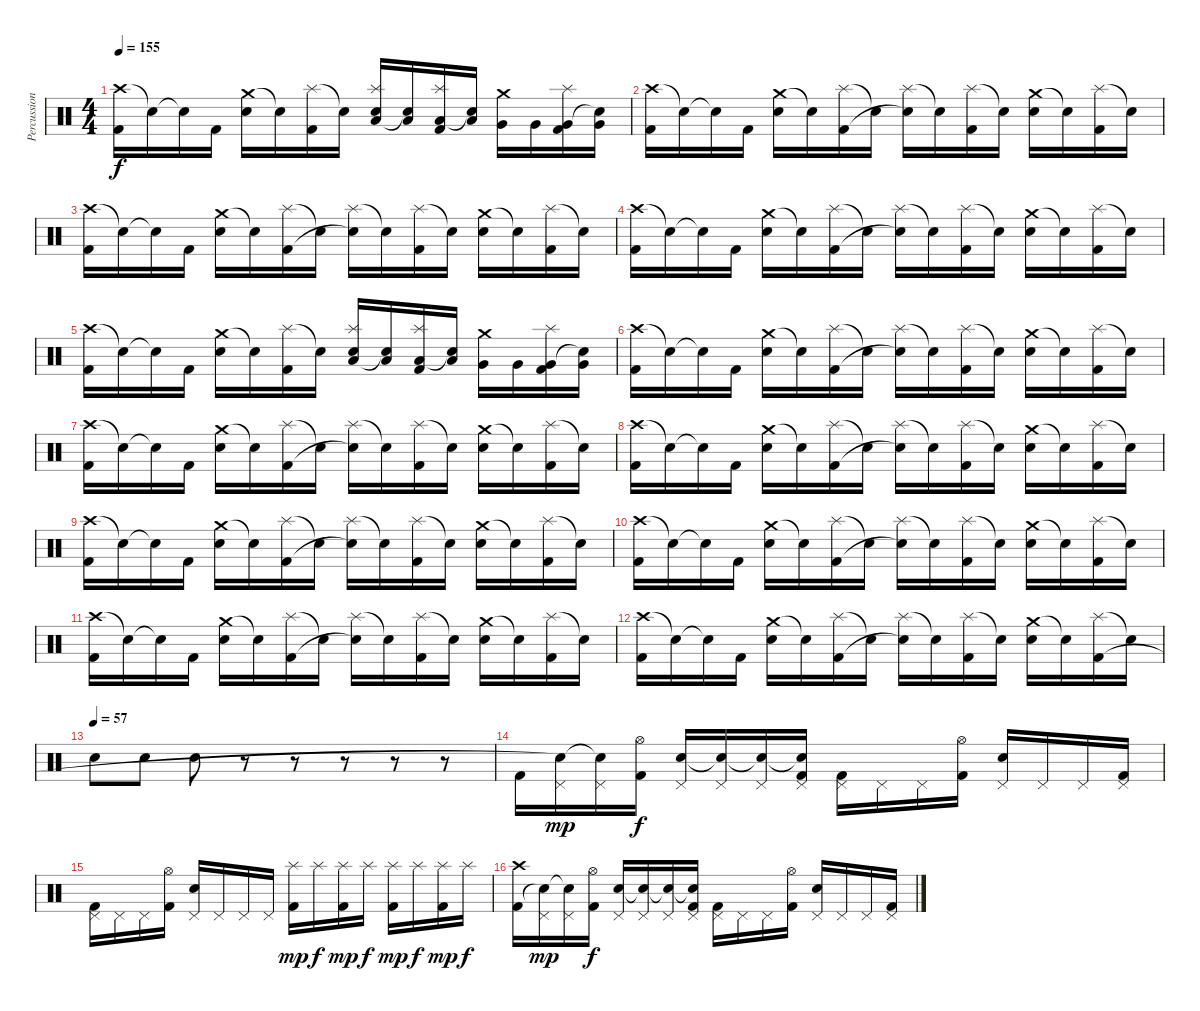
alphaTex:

\track ("Percussion" "Percussion") {instrument percussion}
\staff {score}
\articulation defaults
\ts (4 4)
\tempo 155
\clef neutral
\ks c
("Crash high (hit)" "Kick (hit) 2").16{dy f} "Snare (hit)"{t}.16 "Snare (hit)"{t}.16 "Kick (hit) 2".16 ("Crash medium (hit)" "Snare (hit) 2").16 "Snare (hit)"{t}.16 ("Splash (hit)" "Kick (hit) 2").16 "Snare (hit)"{t}.16 ("Splash (hit)" "Low Tom (hit)" "Snare (hit)").16 ("Low Tom (hit)" "Snare (hit)"{t}).16 ("Splash (hit)" "Low Tom (hit)" "Kick (hit) 2").16 ("Low Tom (hit)" "Snare (hit)"{t}).16 ("Crash medium (hit)" "Very Low Tom (hit)").16 "Very Low Tom (hit)".16 ("Splash (hit)" "Very Low Tom (hit)" "Kick (hit) 2").16 ("Very Low Tom (hit)" "Snare (hit)"{t}).16 |
("Crash high (hit)" "Kick (hit) 2").16 "Snare (hit)"{t}.16 "Snare (hit)"{t}.16 "Kick (hit) 2".16 ("Crash medium (hit)" "Snare (hit) 2").16 "Snare (hit)"{t}.16 ("Splash (hit)" "Kick (hit) 2").16 "Snare (hit)"{t}.16 ("Splash (hit)" "Snare (hit)"{t}).16 "Snare (hit)"{t}.16 ("Splash (hit)" "Kick (hit) 2").16 "Snare (hit)"{t}.16 ("Crash medium (hit)" "Snare (hit) 2").16 "Snare (hit)"{t}.16 ("Splash (hit)" "Kick (hit) 2").16 "Snare (hit)"{t}.16 |
("Crash high (hit)" "Kick (hit) 2").16 "Snare (hit)"{t}.16 "Snare (hit)"{t}.16 "Kick (hit) 2".16 ("Crash medium (hit)" "Snare (hit) 2").16 "Snare (hit)"{t}.16 ("Splash (hit)" "Kick (hit) 2").16 "Snare (hit)"{t}.16 ("Splash (hit)" "Snare (hit)"{t}).16 "Snare (hit)"{t}.16 ("Splash (hit)" "Kick (hit) 2").16 "Snare (hit)"{t}.16 ("Crash medium (hit)" "Snare (hit) 2").16 "Snare (hit)"{t}.16 ("Splash (hit)" "Kick (hit) 2").16 "Snare (hit)"{t}.16 |
("Crash high (hit)" "Kick (hit) 2").16 "Snare (hit)"{t}.16 "Snare (hit)"{t}.16 "Kick (hit) 2".16 ("Crash medium (hit)" "Snare (hit) 2").16 "Snare (hit)"{t}.16 ("Splash (hit)" "Kick (hit) 2").16 "Snare (hit)"{t}.16 ("Splash (hit)" "Snare (hit)"{t}).16 "Snare (hit)"{t}.16 ("Splash (hit)" "Kick (hit) 2").16 "Snare (hit)"{t}.16 ("Crash medium (hit)" "Snare (hit) 2").16 "Snare (hit)"{t}.16 ("Splash (hit)" "Kick (hit) 2").16 "Snare (hit)"{t}.16 |
("Crash high (hit)" "Kick (hit) 2").16 "Snare (hit)"{t}.16 "Snare (hit)"{t}.16 "Kick (hit) 2".16 ("Crash medium (hit)" "Snare (hit) 2").16 "Snare (hit)"{t}.16 ("Splash (hit)" "Kick (hit) 2").16 "Snare (hit)"{t}.16 ("Splash (hit)" "Low Tom (hit)" "Snare (hit)").16 ("Low Tom (hit)" "Snare (hit)"{t}).16 ("Splash (hit)" "Low Tom (hit)" "Kick (hit) 2").16 ("Low Tom (hit)" "Snare (hit)"{t}).16 ("Crash medium (hit)" "Very Low Tom (hit)").16 "Very Low Tom (hit)".16 ("Splash (hit)" "Very Low Tom (hit)" "Kick (hit) 2").16 ("Very Low Tom (hit)" "Snare (hit)"{t}).16 |
("Crash high (hit)" "Kick (hit) 2").16 "Snare (hit)"{t}.16 "Snare (hit)"{t}.16 "Kick (hit) 2".16 ("Crash medium (hit)" "Snare (hit) 2").16 "Snare (hit)"{t}.16 ("Splash (hit)" "Kick (hit) 2").16 "Snare (hit)"{t}.16 ("Splash (hit)" "Snare (hit)"{t}).16 "Snare (hit)"{t}.16 ("Splash (hit)" "Kick (hit) 2").16 "Snare (hit)"{t}.16 ("Crash medium (hit)" "Snare (hit) 2").16 "Snare (hit)"{t}.16 ("Splash (hit)" "Kick (hit) 2").16 "Snare (hit)"{t}.16 |
("Crash high (hit)" "Kick (hit) 2").16 "Snare (hit)"{t}.16 "Snare (hit)"{t}.16 "Kick (hit) 2".16 ("Crash medium (hit)" "Snare (hit) 2").16 "Snare (hit)"{t}.16 ("Splash (hit)" "Kick (hit) 2").16 "Snare (hit)"{t}.16 ("Splash (hit)" "Snare (hit)"{t}).16 "Snare (hit)"{t}.16 ("Splash (hit)" "Kick (hit) 2").16 "Snare (hit)"{t}.16 ("Crash medium (hit)" "Snare (hit) 2").16 "Snare (hit)"{t}.16 ("Splash (hit)" "Kick (hit) 2").16 "Snare (hit)"{t}.16 |
("Crash high (hit)" "Kick (hit) 2").16 "Snare (hit)"{t}.16 "Snare (hit)"{t}.16 "Kick (hit) 2".16 ("Crash medium (hit)" "Snare (hit) 2").16 "Snare (hit)"{t}.16 ("Splash (hit)" "Kick (hit) 2").16 "Snare (hit)"{t}.16 ("Splash (hit)" "Snare (hit)"{t}).16 "Snare (hit)"{t}.16 ("Splash (hit)" "Kick (hit) 2").16 "Snare (hit)"{t}.16 ("Crash medium (hit)" "Snare (hit) 2").16 "Snare (hit)"{t}.16 ("Splash (hit)" "Kick (hit) 2").16 "Snare (hit)"{t}.16 |
("Crash high (hit)" "Kick (hit) 2").16 "Snare (hit)"{t}.16 "Snare (hit)"{t}.16 "Kick (hit) 2".16 ("Crash medium (hit)" "Snare (hit) 2").16 "Snare (hit)"{t}.16 ("Splash (hit)" "Kick (hit) 2").16 "Snare (hit)"{t}.16 ("Splash (hit)" "Snare (hit)"{t}).16 "Snare (hit)"{t}.16 ("Splash (hit)" "Kick (hit) 2").16 "Snare (hit)"{t}.16 ("Crash medium (hit)" "Snare (hit) 2").16 "Snare (hit)"{t}.16 ("Splash (hit)" "Kick (hit) 2").16 "Snare (hit)"{t}.16 |
("Crash high (hit)" "Kick (hit) 2").16 "Snare (hit)"{t}.16 "Snare (hit)"{t}.16 "Kick (hit) 2".16 ("Crash medium (hit)" "Snare (hit) 2").16 "Snare (hit)"{t}.16 ("Splash (hit)" "Kick (hit) 2").16 "Snare (hit)"{t}.16 ("Splash (hit)" "Snare (hit)"{t}).16 "Snare (hit)"{t}.16 ("Splash (hit)" "Kick (hit) 2").16 "Snare (hit)"{t}.16 ("Crash medium (hit)" "Snare (hit) 2").16 "Snare (hit)"{t}.16 ("Splash (hit)" "Kick (hit) 2").16 "Snare (hit)"{t}.16 |
("Crash high (hit)" "Kick (hit) 2").16 "Snare (hit)"{t}.16 "Snare (hit)"{t}.16 "Kick (hit) 2".16 ("Crash medium (hit)" "Snare (hit) 2").16 "Snare (hit)"{t}.16 ("Splash (hit)" "Kick (hit) 2").16 "Snare (hit)"{t}.16 ("Splash (hit)" "Snare (hit)"{t}).16 "Snare (hit)"{t}.16 ("Splash (hit)" "Kick (hit) 2").16 "Snare (hit)"{t}.16 ("Crash medium (hit)" "Snare (hit) 2").16 "Snare (hit)"{t}.16 ("Splash (hit)" "Kick (hit) 2").16 "Snare (hit)"{t}.16 |
("Crash high (hit)" "Kick (hit) 2").16 "Snare (hit)"{t}.16 "Snare (hit)"{t}.16 "Kick (hit) 2".16 ("Crash medium (hit)" "Snare (hit) 2").16 "Snare (hit)"{t}.16 ("Splash (hit)" "Kick (hit) 2").16 "Snare (hit)"{t}.16 ("Splash (hit)" "Snare (hit)"{t}).16 "Snare (hit)"{t}.16 ("Splash (hit)" "Kick (hit) 2").16 "Snare (hit)"{t}.16 ("Crash medium (hit)" "Snare (hit) 2").16 "Snare (hit)"{t}.16 ("Splash (hit)" "Kick (hit) 2").16 "Snare (hit)"{t}.16 |
\tempo (57)
"Snare (hit) 2".8 "Snare (hit) 2".8 "Snare (hit) 2".8 r.8 r.8 r.8 r.8 r.8 |
"Kick (hit) 2".16 ("Pedal Hi-Hat (hit)" "Snare (hit)"{t}).16{dy mp} ("Pedal Hi-Hat (hit)" "Snare (hit)"{t}).16 ("Hi-Hat (open)" "Kick (hit) 2").16{dy f} ("Pedal Hi-Hat (hit)" "Snare (hit) 2").16 ("Pedal Hi-Hat (hit)" "Snare (hit)"{t}).16 ("Pedal Hi-Hat (hit)" "Snare (hit)"{t}).16 ("Pedal Hi-Hat (hit)" "Snare (hit)"{t} "Kick (hit) 2").16 ("Pedal Hi-Hat (hit)" "Kick (hit) 2").16 "Pedal Hi-Hat (hit)".16 "Pedal Hi-Hat (hit)".16 ("Hi-Hat (open)" "Kick (hit) 2").16 ("Pedal Hi-Hat (hit)" "Snare (hit) 2").16 "Pedal Hi-Hat (hit)".16 "Pedal Hi-Hat (hit)".16 ("Pedal Hi-Hat (hit)" "Kick (hit) 2").16 |
("Pedal Hi-Hat (hit)" "Kick (hit) 2").16 "Pedal Hi-Hat (hit)".16 "Pedal Hi-Hat (hit)".16 ("Hi-Hat (open)" "Kick (hit) 2").16 ("Pedal Hi-Hat (hit)" "Snare (hit) 2").16 "Pedal Hi-Hat (hit)".16 "Pedal Hi-Hat (hit)".16 "Pedal Hi-Hat (hit)".16 ("Splash (hit)" "Kick (hit) 2").16{dy mp} "Splash (hit)".16{dy f} ("Splash (hit)" "Kick (hit) 2").16{dy mp} "Splash (hit)".16{dy f} ("Splash (hit)" "Kick (hit) 2").16{dy mp} "Splash (hit)".16{dy f} ("Splash (hit)" "Kick (hit) 2").16{dy mp} "Splash (hit)".16{dy f} |
("Crash high (hit)" "Kick (hit) 2").16 ("Pedal Hi-Hat (hit)" "Snare (hit)"{t}).16{dy mp} ("Pedal Hi-Hat (hit)" "Snare (hit)"{t}).16 ("Hi-Hat (open)" "Kick (hit) 2").16{dy f} ("Pedal Hi-Hat (hit)" "Snare (hit) 2").16 ("Pedal Hi-Hat (hit)" "Snare (hit)"{t}).16 ("Pedal Hi-Hat (hit)" "Snare (hit)"{t}).16 ("Pedal Hi-Hat (hit)" "Snare (hit)"{t} "Kick (hit) 2").16 ("Pedal Hi-Hat (hit)" "Kick (hit) 2").16 "Pedal Hi-Hat (hit)".16 "Pedal Hi-Hat (hit)".16 ("Hi-Hat (open)" "Kick (hit) 2").16 ("Pedal Hi-Hat (hit)" "Snare (hit) 2").16 "Pedal Hi-Hat (hit)".16 "Pedal Hi-Hat (hit)".16 ("Pedal Hi-Hat (hit)" "Kick (hit) 2").16
